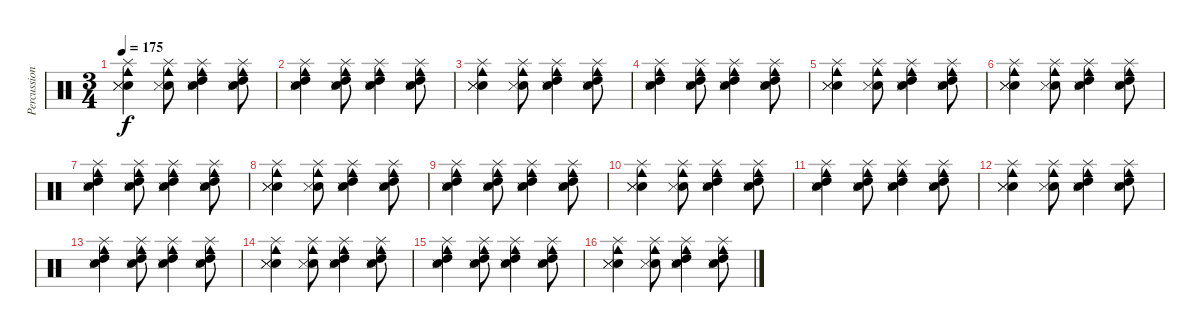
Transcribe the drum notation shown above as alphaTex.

\track ("Percussion" "Percussion") {instrument percussion}
\staff {score}
\articulation defaults
\ts (3 4)
\tempo 175
\clef neutral
\ks c
("Snare (hit) 2" "Snare (side stick) 3" "Snare (side stick) 3" "Splash (hit)" "Cowbell medium (hit)").4{dy f} ("Snare (hit) 2" "Snare (side stick) 3" "Splash (hit)" "Cowbell medium (hit)").8 ("Snare (hit) 2" "Snare (side stick) 3" "High Tom (hit)" "Splash (hit)" "Cowbell medium (hit)").4 ("Snare (hit) 2" "Snare (side stick) 3" "High Tom (hit)" "Splash (hit)" "Cowbell medium (hit)").8 |
("Snare (hit) 2" "Snare (side stick) 3" "High Tom (hit)" "Splash (hit)" "Cowbell medium (hit)").4 ("Snare (hit) 2" "Snare (side stick) 3" "High Tom (hit)" "Splash (hit)" "Cowbell medium (hit)").8 ("Snare (hit) 2" "Snare (side stick) 3" "High Tom (hit)" "Splash (hit)" "Cowbell medium (hit)").4 ("Snare (hit) 2" "Snare (side stick) 3" "High Tom (hit)" "Splash (hit)" "Cowbell medium (hit)").8 |
("Snare (hit) 2" "Snare (side stick) 3" "Snare (side stick) 3" "Splash (hit)" "Cowbell medium (hit)").4 ("Snare (hit) 2" "Snare (side stick) 3" "Splash (hit)" "Cowbell medium (hit)").8 ("Snare (hit) 2" "Snare (side stick) 3" "High Tom (hit)" "Splash (hit)" "Cowbell medium (hit)").4 ("Snare (hit) 2" "Snare (side stick) 3" "High Tom (hit)" "Splash (hit)" "Cowbell medium (hit)").8 |
("Snare (hit) 2" "Snare (side stick) 3" "High Tom (hit)" "Splash (hit)" "Cowbell medium (hit)").4 ("Snare (hit) 2" "Snare (side stick) 3" "High Tom (hit)" "Splash (hit)" "Cowbell medium (hit)").8 ("Snare (hit) 2" "Snare (side stick) 3" "High Tom (hit)" "Splash (hit)" "Cowbell medium (hit)").4 ("Snare (hit) 2" "Snare (side stick) 3" "High Tom (hit)" "Splash (hit)" "Cowbell medium (hit)").8 |
("Snare (hit) 2" "Snare (side stick) 3" "Snare (side stick) 3" "Splash (hit)" "Cowbell medium (hit)").4 ("Snare (hit) 2" "Snare (side stick) 3" "Splash (hit)" "Cowbell medium (hit)").8 ("Snare (hit) 2" "Snare (side stick) 3" "High Tom (hit)" "Splash (hit)" "Cowbell medium (hit)").4 ("Snare (hit) 2" "Snare (side stick) 3" "High Tom (hit)" "Splash (hit)" "Cowbell medium (hit)").8 |
("Snare (hit) 2" "Snare (side stick) 3" "Snare (side stick) 3" "Splash (hit)" "Cowbell medium (hit)").4 ("Snare (hit) 2" "Snare (side stick) 3" "Splash (hit)" "Cowbell medium (hit)").8 ("Snare (hit) 2" "Snare (side stick) 3" "High Tom (hit)" "Splash (hit)" "Cowbell medium (hit)").4 ("Snare (hit) 2" "Snare (side stick) 3" "High Tom (hit)" "Splash (hit)" "Cowbell medium (hit)").8 |
("Snare (hit) 2" "Snare (side stick) 3" "High Tom (hit)" "Splash (hit)" "Cowbell medium (hit)").4 ("Snare (hit) 2" "Snare (side stick) 3" "High Tom (hit)" "Splash (hit)" "Cowbell medium (hit)").8 ("Snare (hit) 2" "Snare (side stick) 3" "High Tom (hit)" "Splash (hit)" "Cowbell medium (hit)").4 ("Snare (hit) 2" "Snare (side stick) 3" "High Tom (hit)" "Splash (hit)" "Cowbell medium (hit)").8 |
("Snare (hit) 2" "Snare (side stick) 3" "Snare (side stick) 3" "Splash (hit)" "Cowbell medium (hit)").4 ("Snare (hit) 2" "Snare (side stick) 3" "Splash (hit)" "Cowbell medium (hit)").8 ("Snare (hit) 2" "Snare (side stick) 3" "High Tom (hit)" "Splash (hit)" "Cowbell medium (hit)").4 ("Snare (hit) 2" "Snare (side stick) 3" "High Tom (hit)" "Splash (hit)" "Cowbell medium (hit)").8 |
("Snare (hit) 2" "Snare (side stick) 3" "High Tom (hit)" "Splash (hit)" "Cowbell medium (hit)").4 ("Snare (hit) 2" "Snare (side stick) 3" "High Tom (hit)" "Splash (hit)" "Cowbell medium (hit)").8 ("Snare (hit) 2" "Snare (side stick) 3" "High Tom (hit)" "Splash (hit)" "Cowbell medium (hit)").4 ("Snare (hit) 2" "Snare (side stick) 3" "High Tom (hit)" "Splash (hit)" "Cowbell medium (hit)").8 |
("Snare (hit) 2" "Snare (side stick) 3" "Snare (side stick) 3" "Splash (hit)" "Cowbell medium (hit)").4 ("Snare (hit) 2" "Snare (side stick) 3" "Splash (hit)" "Cowbell medium (hit)").8 ("Snare (hit) 2" "Snare (side stick) 3" "High Tom (hit)" "Splash (hit)" "Cowbell medium (hit)").4 ("Snare (hit) 2" "Snare (side stick) 3" "High Tom (hit)" "Splash (hit)" "Cowbell medium (hit)").8 |
("Snare (hit) 2" "Snare (side stick) 3" "High Tom (hit)" "Splash (hit)" "Cowbell medium (hit)").4 ("Snare (hit) 2" "Snare (side stick) 3" "High Tom (hit)" "Splash (hit)" "Cowbell medium (hit)").8 ("Snare (hit) 2" "Snare (side stick) 3" "High Tom (hit)" "Splash (hit)" "Cowbell medium (hit)").4 ("Snare (hit) 2" "Snare (side stick) 3" "High Tom (hit)" "Splash (hit)" "Cowbell medium (hit)").8 |
("Snare (hit) 2" "Snare (side stick) 3" "Snare (side stick) 3" "Splash (hit)" "Cowbell medium (hit)").4 ("Snare (hit) 2" "Snare (side stick) 3" "Splash (hit)" "Cowbell medium (hit)").8 ("Snare (hit) 2" "Snare (side stick) 3" "High Tom (hit)" "Splash (hit)" "Cowbell medium (hit)").4 ("Snare (hit) 2" "Snare (side stick) 3" "High Tom (hit)" "Splash (hit)" "Cowbell medium (hit)").8 |
("Snare (hit) 2" "Snare (side stick) 3" "High Tom (hit)" "Splash (hit)" "Cowbell medium (hit)").4 ("Snare (hit) 2" "Snare (side stick) 3" "High Tom (hit)" "Splash (hit)" "Cowbell medium (hit)").8 ("Snare (hit) 2" "Snare (side stick) 3" "High Tom (hit)" "Splash (hit)" "Cowbell medium (hit)").4 ("Snare (hit) 2" "Snare (side stick) 3" "High Tom (hit)" "Splash (hit)" "Cowbell medium (hit)").8 |
("Snare (hit) 2" "Snare (side stick) 3" "Snare (side stick) 3" "Splash (hit)" "Cowbell medium (hit)").4 ("Snare (hit) 2" "Snare (side stick) 3" "Splash (hit)" "Cowbell medium (hit)").8 ("Snare (hit) 2" "Snare (side stick) 3" "High Tom (hit)" "Splash (hit)" "Cowbell medium (hit)").4 ("Snare (hit) 2" "Snare (side stick) 3" "High Tom (hit)" "Splash (hit)" "Cowbell medium (hit)").8 |
("Snare (hit) 2" "Snare (side stick) 3" "High Tom (hit)" "Splash (hit)" "Cowbell medium (hit)").4 ("Snare (hit) 2" "Snare (side stick) 3" "High Tom (hit)" "Splash (hit)" "Cowbell medium (hit)").8 ("Snare (hit) 2" "Snare (side stick) 3" "High Tom (hit)" "Splash (hit)" "Cowbell medium (hit)").4 ("Snare (hit) 2" "Snare (side stick) 3" "High Tom (hit)" "Splash (hit)" "Cowbell medium (hit)").8 |
("Snare (hit) 2" "Snare (side stick) 3" "Snare (side stick) 3" "Splash (hit)" "Cowbell medium (hit)").4 ("Snare (hit) 2" "Snare (side stick) 3" "Splash (hit)" "Cowbell medium (hit)").8 ("Snare (hit) 2" "Snare (side stick) 3" "High Tom (hit)" "Splash (hit)" "Cowbell medium (hit)").4 ("Snare (hit) 2" "Snare (side stick) 3" "High Tom (hit)" "Splash (hit)" "Cowbell medium (hit)").8
